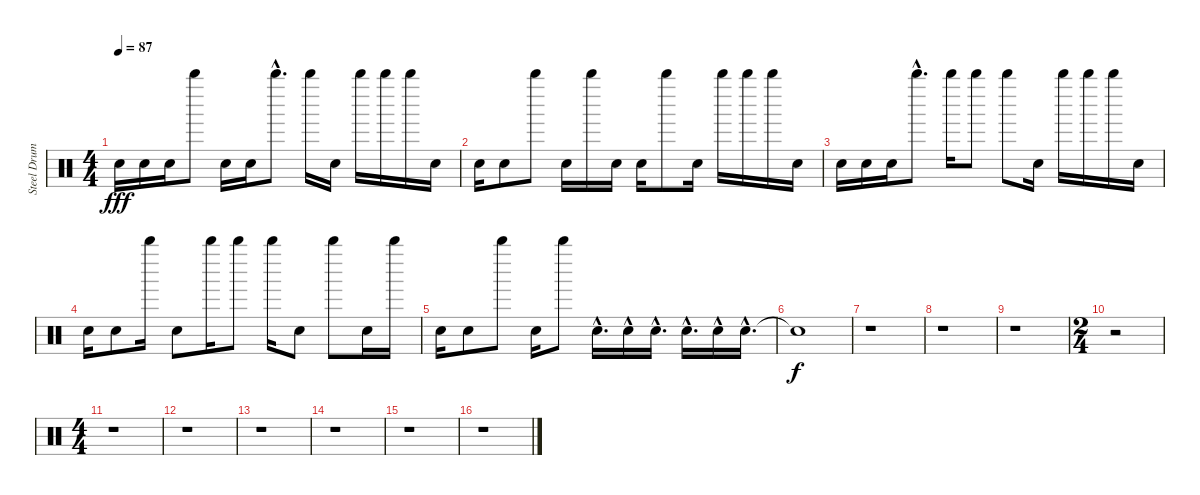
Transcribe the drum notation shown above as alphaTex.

\track ("Steel Drum" "Steel Drum") {instrument percussion}
\staff {score}
\articulation defaults
\ts (4 4)
\tempo 87
\clef neutral
\ks c "Hand Clap (hit)".16{dy fff} "Electric Snare (hit)".16 "Electric Snare (hit)".16 "Whistle high (hit)".8 "Electric Snare (hit)".16 "Electric Snare (hit)".16 "Whistle high (hit)"{hac}.8{d} "Whistle high (hit)".16 "Electric Snare (hit)".16 "Whistle high (hit)".16 "Whistle high (hit)".16 "Whistle high (hit)".16 "Snare (hit)".16
|
"Hand Clap (hit)".16 "Electric Snare (hit)".8 "Whistle high (hit)".8 "Electric Snare (hit)".16 "Whistle high (hit)".16 "Electric Snare (hit)".16 "Electric Snare (hit)".16 "Whistle high (hit)".8 "Electric Snare (hit)".16 "Whistle high (hit)".16 "Whistle high (hit)".16 "Whistle high (hit)".16 "Snare (hit)".16 |
"Hand Clap (hit)".16 "Electric Snare (hit)".16 "Electric Snare (hit)".16 "Whistle high (hit)"{hac}.8{d} "Whistle high (hit)".16 "Whistle high (hit)".8 "Whistle high (hit)".8 "Electric Snare (hit)".16 "Whistle high (hit)".16 "Whistle high (hit)".16 "Whistle high (hit)".16 "Snare (hit)".16 |
"Hand Clap (hit)".16 "Electric Snare (hit)".8 "Whistle high (hit)".16 "Electric Snare (hit)".8 "Whistle high (hit)".16 "Whistle high (hit)".8 "Whistle high (hit)".16 "Electric Snare (hit)".8 "Whistle high (hit)".8 "Electric Snare (hit)".16 "Whistle high (hit)".16 |
"Hand Clap (hit)".16 "Electric Snare (hit)".8 "Whistle high (hit)".8 "Electric Snare (hit)".16 "Whistle high (hit)".8 "Snare (hit)"{hac}.16{d} "Snare (hit)"{hac}.16 "Snare (hit)"{hac}.16{d} "Snare (hit)"{hac}.16{d} "Snare (hit)"{hac}.16 "Snare (hit)"{hac}.16{d} |
"Snare (hit)"{t}.1{dy f} |
r.1 |
r.1 |
r.1 |
\ts (2 4)
r.2 |
\ts (4 4)
r.1 |
r.1 |
r.1 |
r.1 |
r.1 |
r.1
